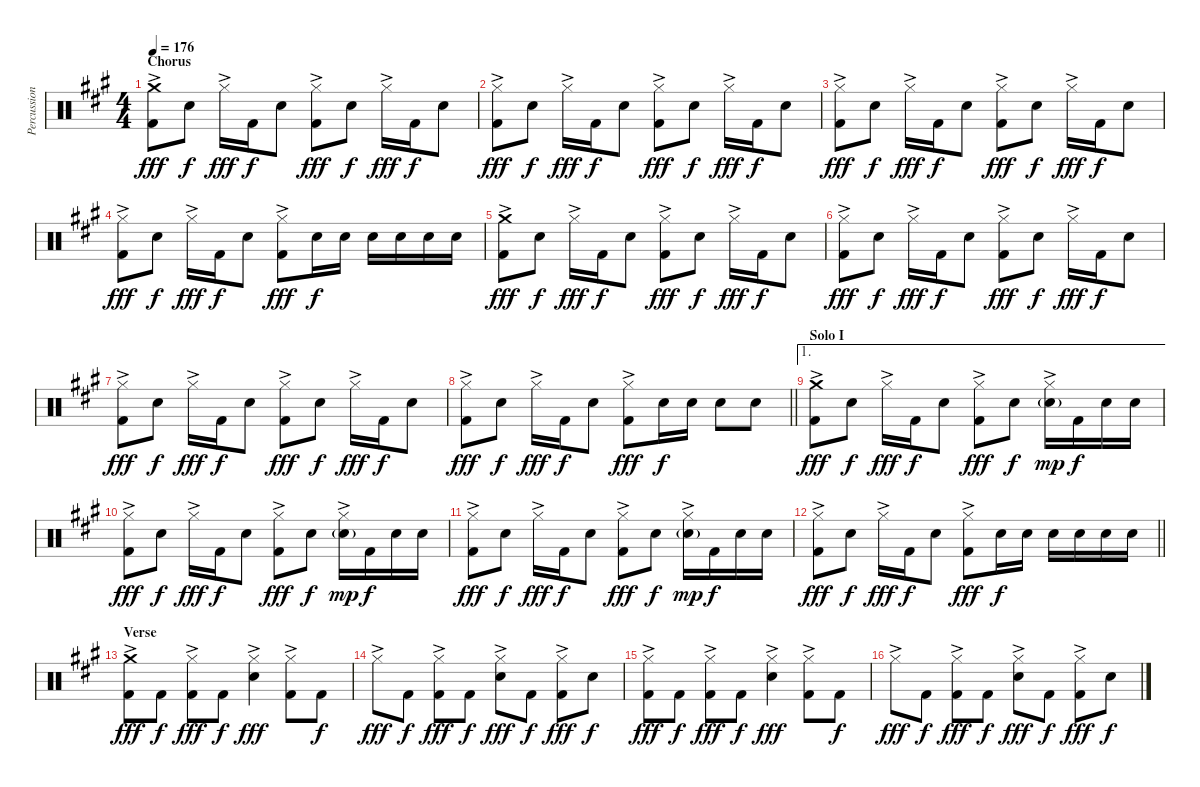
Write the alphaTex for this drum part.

\track ("Percussion" "Percussion") {instrument percussion}
\staff {score}
\articulation defaults
\ts (4 4)
\section ("" "Chorus")
\tempo 176
\clef neutral
\ks a
("Crash medium (hit)"{ac} "Kick (hit) 2").8{dy fff} "Snare (hit) 2".8{dy f} "Hi-Hat (closed)"{ac}.16{dy fff} "Kick (hit) 2".16{dy f} "Snare (hit) 2".8 ("Hi-Hat (closed)"{ac} "Kick (hit) 2").8{dy fff} "Snare (hit) 2".8{dy f} "Hi-Hat (closed)"{ac}.16{dy fff} "Kick (hit) 2".16{dy f} "Snare (hit) 2".8 |
("Hi-Hat (closed)"{ac} "Kick (hit) 2").8{dy fff} "Snare (hit) 2".8{dy f} "Hi-Hat (closed)"{ac}.16{dy fff} "Kick (hit) 2".16{dy f} "Snare (hit) 2".8 ("Hi-Hat (closed)"{ac} "Kick (hit) 2").8{dy fff} "Snare (hit) 2".8{dy f} "Hi-Hat (closed)"{ac}.16{dy fff} "Kick (hit) 2".16{dy f} "Snare (hit) 2".8 |
("Hi-Hat (closed)"{ac} "Kick (hit) 2").8{dy fff} "Snare (hit) 2".8{dy f} "Hi-Hat (closed)"{ac}.16{dy fff} "Kick (hit) 2".16{dy f} "Snare (hit) 2".8 ("Hi-Hat (closed)"{ac} "Kick (hit) 2").8{dy fff} "Snare (hit) 2".8{dy f} "Hi-Hat (closed)"{ac}.16{dy fff} "Kick (hit) 2".16{dy f} "Snare (hit) 2".8 |
("Hi-Hat (closed)"{ac} "Kick (hit) 2").8{dy fff} "Snare (hit) 2".8{dy f} "Hi-Hat (closed)"{ac}.16{dy fff} "Kick (hit) 2".16{dy f} "Snare (hit) 2".8 ("Hi-Hat (closed)"{ac} "Kick (hit) 2").8{dy fff} "Snare (hit) 2".16{dy f} "Snare (hit) 2".16 "Snare (hit) 2".16 "Snare (hit) 2".16 "Snare (hit) 2".16 "Snare (hit) 2".16 |
("Crash medium (hit)"{ac} "Kick (hit) 2").8{dy fff} "Snare (hit) 2".8{dy f} "Hi-Hat (closed)"{ac}.16{dy fff} "Kick (hit) 2".16{dy f} "Snare (hit) 2".8 ("Hi-Hat (closed)"{ac} "Kick (hit) 2").8{dy fff} "Snare (hit) 2".8{dy f} "Hi-Hat (closed)"{ac}.16{dy fff} "Kick (hit) 2".16{dy f} "Snare (hit) 2".8 |
("Hi-Hat (closed)"{ac} "Kick (hit) 2").8{dy fff} "Snare (hit) 2".8{dy f} "Hi-Hat (closed)"{ac}.16{dy fff} "Kick (hit) 2".16{dy f} "Snare (hit) 2".8 ("Hi-Hat (closed)"{ac} "Kick (hit) 2").8{dy fff} "Snare (hit) 2".8{dy f} "Hi-Hat (closed)"{ac}.16{dy fff} "Kick (hit) 2".16{dy f} "Snare (hit) 2".8 |
("Hi-Hat (closed)"{ac} "Kick (hit) 2").8{dy fff} "Snare (hit) 2".8{dy f} "Hi-Hat (closed)"{ac}.16{dy fff} "Kick (hit) 2".16{dy f} "Snare (hit) 2".8 ("Hi-Hat (closed)"{ac} "Kick (hit) 2").8{dy fff} "Snare (hit) 2".8{dy f} "Hi-Hat (closed)"{ac}.16{dy fff} "Kick (hit) 2".16{dy f} "Snare (hit) 2".8 |
\barLineRight lightlight
("Hi-Hat (closed)"{ac} "Kick (hit) 2").8{dy fff} "Snare (hit) 2".8{dy f} "Hi-Hat (closed)"{ac}.16{dy fff} "Kick (hit) 2".16{dy f} "Snare (hit) 2".8 ("Hi-Hat (closed)"{ac} "Kick (hit) 2").8{dy fff} "Snare (hit) 2".16{dy f} "Snare (hit) 2".16 "Snare (hit) 2".8 "Snare (hit) 2".8 |
\ae 1
\section ("" "Solo I")
("Crash medium (hit)"{ac} "Kick (hit) 2").8{dy fff} "Snare (hit) 2".8{dy f} "Hi-Hat (closed)"{ac}.16{dy fff} "Kick (hit) 2".16{dy f} "Snare (hit) 2".8 ("Hi-Hat (closed)"{ac} "Kick (hit) 2").8{dy fff} "Snare (hit) 2".8{dy f} ("Hi-Hat (closed)"{ac} "Snare (hit) 2"{g}).16{dy mp} "Kick (hit) 2".16{dy f} "Snare (hit) 2".16 "Snare (hit) 2".16 |
("Hi-Hat (closed)"{ac} "Kick (hit) 2").8{dy fff} "Snare (hit) 2".8{dy f} "Hi-Hat (closed)"{ac}.16{dy fff} "Kick (hit) 2".16{dy f} "Snare (hit) 2".8 ("Hi-Hat (closed)"{ac} "Kick (hit) 2").8{dy fff} "Snare (hit) 2".8{dy f} ("Hi-Hat (closed)"{ac} "Snare (hit) 2"{g}).16{dy mp} "Kick (hit) 2".16{dy f} "Snare (hit) 2".16 "Snare (hit) 2".16 |
("Hi-Hat (closed)"{ac} "Kick (hit) 2").8{dy fff} "Snare (hit) 2".8{dy f} "Hi-Hat (closed)"{ac}.16{dy fff} "Kick (hit) 2".16{dy f} "Snare (hit) 2".8 ("Hi-Hat (closed)"{ac} "Kick (hit) 2").8{dy fff} "Snare (hit) 2".8{dy f} ("Hi-Hat (closed)"{ac} "Snare (hit) 2"{g}).16{dy mp} "Kick (hit) 2".16{dy f} "Snare (hit) 2".16 "Snare (hit) 2".16 |
\barLineRight lightlight
("Hi-Hat (closed)"{ac} "Kick (hit) 2").8{dy fff} "Snare (hit) 2".8{dy f} "Hi-Hat (closed)"{ac}.16{dy fff} "Kick (hit) 2".16{dy f} "Snare (hit) 2".8 ("Hi-Hat (closed)"{ac} "Kick (hit) 2").8{dy fff} "Snare (hit) 2".16{dy f} "Snare (hit) 2".16 "Snare (hit) 2".16 "Snare (hit) 2".16 "Snare (hit) 2".16 "Snare (hit) 2".16 |
\section ("" "Verse")
("Crash medium (hit)"{ac} "Kick (hit) 2").8{dy fff} "Kick (hit) 2".8{dy f} ("Hi-Hat (closed)"{ac} "Kick (hit) 2").8{dy fff} "Kick (hit) 2".8{dy f} ("Hi-Hat (closed)"{ac} "Snare (hit) 2").4{dy fff} ("Hi-Hat (closed)"{ac} "Kick (hit) 2").8 "Kick (hit) 2".8{dy f} |
"Hi-Hat (closed)"{ac}.8{dy fff} "Kick (hit) 2".8{dy f} ("Hi-Hat (closed)"{ac} "Kick (hit) 2").8{dy fff} "Kick (hit) 2".8{dy f} ("Hi-Hat (closed)"{ac} "Snare (hit) 2").8{dy fff} "Kick (hit) 2".8{dy f} ("Hi-Hat (closed)"{ac} "Kick (hit) 2").8{dy fff} "Snare (hit) 2".8{dy f} |
("Hi-Hat (closed)"{ac} "Kick (hit) 2").8{dy fff} "Kick (hit) 2".8{dy f} ("Hi-Hat (closed)"{ac} "Kick (hit) 2").8{dy fff} "Kick (hit) 2".8{dy f} ("Hi-Hat (closed)"{ac} "Snare (hit) 2").4{dy fff} ("Hi-Hat (closed)"{ac} "Kick (hit) 2").8 "Kick (hit) 2".8{dy f} |
"Hi-Hat (closed)"{ac}.8{dy fff} "Kick (hit) 2".8{dy f} ("Hi-Hat (closed)"{ac} "Kick (hit) 2").8{dy fff} "Kick (hit) 2".8{dy f} ("Hi-Hat (closed)"{ac} "Snare (hit) 2").8{dy fff} "Kick (hit) 2".8{dy f} ("Hi-Hat (closed)"{ac} "Kick (hit) 2").8{dy fff} "Snare (hit) 2".8{dy f}
